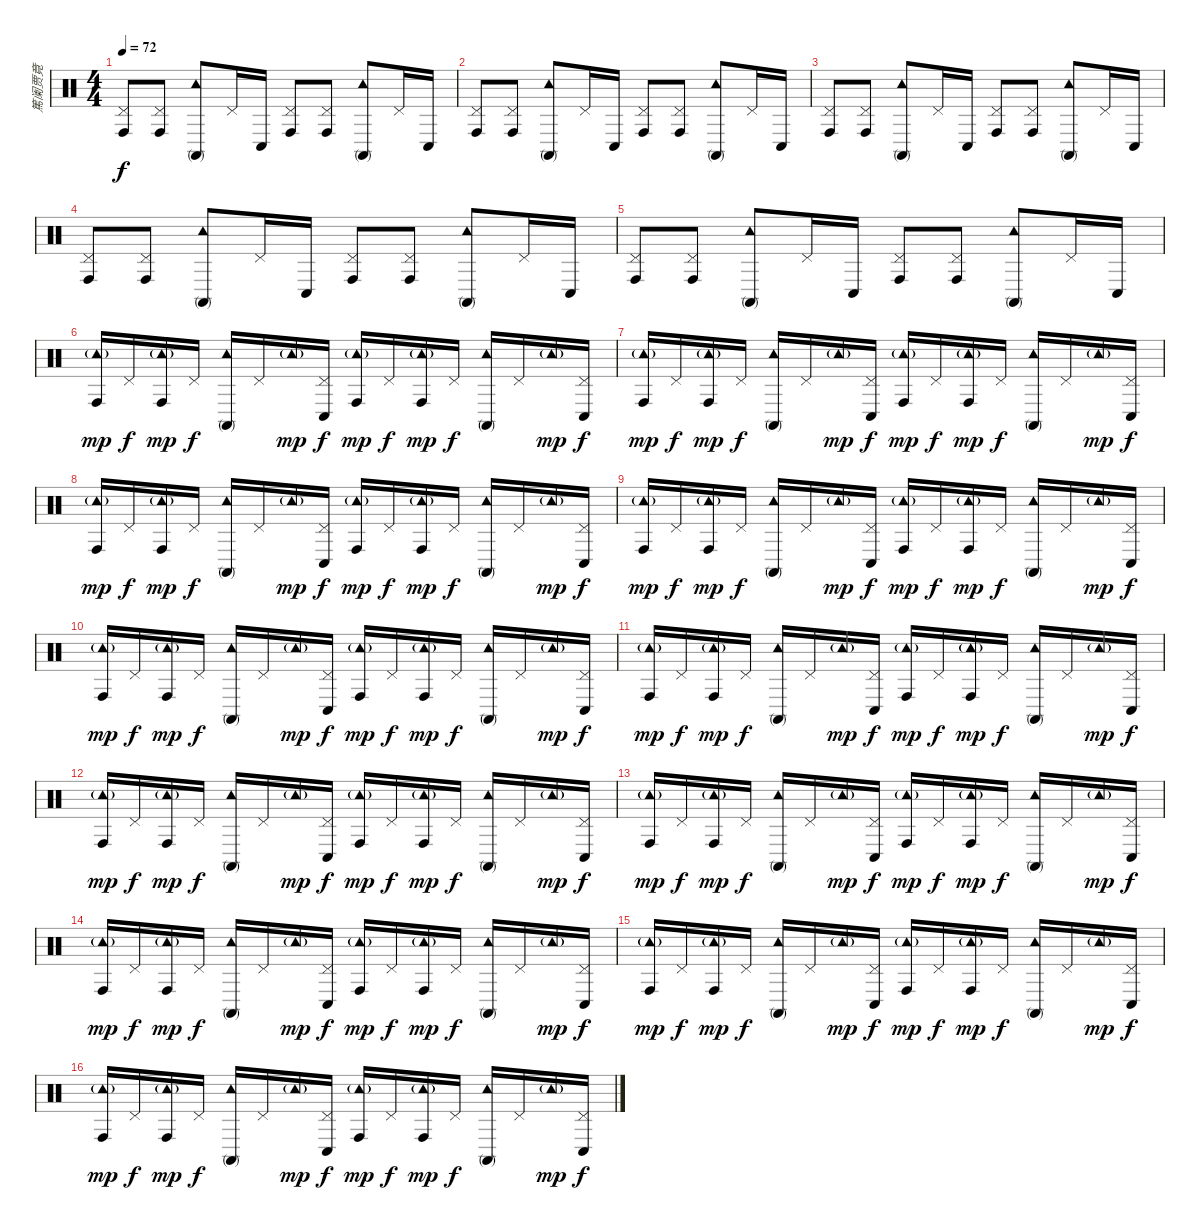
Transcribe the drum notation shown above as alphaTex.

\track ("篤阑贾竟" "篤阑贾竟") {instrument percussion}
\staff {score}
\articulation defaults
\ts (4 4)
\tempo 72
\clef neutral
\ks c
("Pedal Hi-Hat (hit)" "Conga high (hit)").8{dy f} ("Pedal Hi-Hat (hit)" "Conga high (hit)").8 ("Tambourine (hit)" "Conga high (mute)").8 "Pedal Hi-Hat (hit)".16 "Conga low (hit)".16 ("Pedal Hi-Hat (hit)" "Conga high (hit)").8 ("Pedal Hi-Hat (hit)" "Conga high (hit)").8 ("Tambourine (hit)" "Conga high (mute)").8 "Pedal Hi-Hat (hit)".16 "Conga low (hit)".16 |
("Pedal Hi-Hat (hit)" "Conga high (hit)").8 ("Pedal Hi-Hat (hit)" "Conga high (hit)").8 ("Tambourine (hit)" "Conga high (mute)").8 "Pedal Hi-Hat (hit)".16 "Conga low (hit)".16 ("Pedal Hi-Hat (hit)" "Conga high (hit)").8 ("Pedal Hi-Hat (hit)" "Conga high (hit)").8 ("Tambourine (hit)" "Conga high (mute)").8 "Pedal Hi-Hat (hit)".16 "Conga low (hit)".16 |
("Pedal Hi-Hat (hit)" "Conga high (hit)").8 ("Pedal Hi-Hat (hit)" "Conga high (hit)").8 ("Tambourine (hit)" "Conga high (mute)").8 "Pedal Hi-Hat (hit)".16 "Conga low (hit)".16 ("Pedal Hi-Hat (hit)" "Conga high (hit)").8 ("Pedal Hi-Hat (hit)" "Conga high (hit)").8 ("Tambourine (hit)" "Conga high (mute)").8 "Pedal Hi-Hat (hit)".16 "Conga low (hit)".16 |
("Pedal Hi-Hat (hit)" "Conga high (hit)").8 ("Pedal Hi-Hat (hit)" "Conga high (hit)").8 ("Tambourine (hit)" "Conga high (mute)").8 "Pedal Hi-Hat (hit)".16 "Conga low (hit)".16 ("Pedal Hi-Hat (hit)" "Conga high (hit)").8 ("Pedal Hi-Hat (hit)" "Conga high (hit)").8 ("Tambourine (hit)" "Conga high (mute)").8 "Pedal Hi-Hat (hit)".16 "Conga low (hit)".16 |
("Pedal Hi-Hat (hit)" "Conga high (hit)").8 ("Pedal Hi-Hat (hit)" "Conga high (hit)").8 ("Tambourine (hit)" "Conga high (mute)").8 "Pedal Hi-Hat (hit)".16 "Conga low (hit)".16 ("Pedal Hi-Hat (hit)" "Conga high (hit)").8 ("Pedal Hi-Hat (hit)" "Conga high (hit)").8 ("Tambourine (hit)" "Conga high (mute)").8 "Pedal Hi-Hat (hit)".16 "Conga low (hit)".16 |
("Tambourine (hit)"{g} "Conga high (hit)").16{dy mp} "Pedal Hi-Hat (hit)".16{dy f} ("Tambourine (hit)"{g} "Conga high (hit)").16{dy mp} "Pedal Hi-Hat (hit)".16{dy f} ("Tambourine (hit)" "Conga high (mute)").16 "Pedal Hi-Hat (hit)".16 "Tambourine (hit)"{g}.16{dy mp} ("Pedal Hi-Hat (hit)" "Conga low (hit)").16{dy f} ("Tambourine (hit)"{g} "Conga high (hit)").16{dy mp} "Pedal Hi-Hat (hit)".16{dy f} ("Tambourine (hit)"{g} "Conga high (hit)").16{dy mp} "Pedal Hi-Hat (hit)".16{dy f} ("Tambourine (hit)" "Conga high (mute)").16 "Pedal Hi-Hat (hit)".16 "Tambourine (hit)"{g}.16{dy mp} ("Pedal Hi-Hat (hit)" "Conga low (hit)").16{dy f} |
("Tambourine (hit)"{g} "Conga high (hit)").16{dy mp} "Pedal Hi-Hat (hit)".16{dy f} ("Tambourine (hit)"{g} "Conga high (hit)").16{dy mp} "Pedal Hi-Hat (hit)".16{dy f} ("Tambourine (hit)" "Conga high (mute)").16 "Pedal Hi-Hat (hit)".16 "Tambourine (hit)"{g}.16{dy mp} ("Pedal Hi-Hat (hit)" "Conga low (hit)").16{dy f} ("Tambourine (hit)"{g} "Conga high (hit)").16{dy mp} "Pedal Hi-Hat (hit)".16{dy f} ("Tambourine (hit)"{g} "Conga high (hit)").16{dy mp} "Pedal Hi-Hat (hit)".16{dy f} ("Tambourine (hit)" "Conga high (mute)").16 "Pedal Hi-Hat (hit)".16 "Tambourine (hit)"{g}.16{dy mp} ("Pedal Hi-Hat (hit)" "Conga low (hit)").16{dy f} |
("Tambourine (hit)"{g} "Conga high (hit)").16{dy mp} "Pedal Hi-Hat (hit)".16{dy f} ("Tambourine (hit)"{g} "Conga high (hit)").16{dy mp} "Pedal Hi-Hat (hit)".16{dy f} ("Tambourine (hit)" "Conga high (mute)").16 "Pedal Hi-Hat (hit)".16 "Tambourine (hit)"{g}.16{dy mp} ("Pedal Hi-Hat (hit)" "Conga low (hit)").16{dy f} ("Tambourine (hit)"{g} "Conga high (hit)").16{dy mp} "Pedal Hi-Hat (hit)".16{dy f} ("Tambourine (hit)"{g} "Conga high (hit)").16{dy mp} "Pedal Hi-Hat (hit)".16{dy f} ("Tambourine (hit)" "Conga high (mute)").16 "Pedal Hi-Hat (hit)".16 "Tambourine (hit)"{g}.16{dy mp} ("Pedal Hi-Hat (hit)" "Conga low (hit)").16{dy f} |
("Tambourine (hit)"{g} "Conga high (hit)").16{dy mp} "Pedal Hi-Hat (hit)".16{dy f} ("Tambourine (hit)"{g} "Conga high (hit)").16{dy mp} "Pedal Hi-Hat (hit)".16{dy f} ("Tambourine (hit)" "Conga high (mute)").16 "Pedal Hi-Hat (hit)".16 "Tambourine (hit)"{g}.16{dy mp} ("Pedal Hi-Hat (hit)" "Conga low (hit)").16{dy f} ("Tambourine (hit)"{g} "Conga high (hit)").16{dy mp} "Pedal Hi-Hat (hit)".16{dy f} ("Tambourine (hit)"{g} "Conga high (hit)").16{dy mp} "Pedal Hi-Hat (hit)".16{dy f} ("Tambourine (hit)" "Conga high (mute)").16 "Pedal Hi-Hat (hit)".16 "Tambourine (hit)"{g}.16{dy mp} ("Pedal Hi-Hat (hit)" "Conga low (hit)").16{dy f} |
("Tambourine (hit)"{g} "Conga high (hit)").16{dy mp} "Pedal Hi-Hat (hit)".16{dy f} ("Tambourine (hit)"{g} "Conga high (hit)").16{dy mp} "Pedal Hi-Hat (hit)".16{dy f} ("Tambourine (hit)" "Conga high (mute)").16 "Pedal Hi-Hat (hit)".16 "Tambourine (hit)"{g}.16{dy mp} ("Pedal Hi-Hat (hit)" "Conga low (hit)").16{dy f} ("Tambourine (hit)"{g} "Conga high (hit)").16{dy mp} "Pedal Hi-Hat (hit)".16{dy f} ("Tambourine (hit)"{g} "Conga high (hit)").16{dy mp} "Pedal Hi-Hat (hit)".16{dy f} ("Tambourine (hit)" "Conga high (mute)").16 "Pedal Hi-Hat (hit)".16 "Tambourine (hit)"{g}.16{dy mp} ("Pedal Hi-Hat (hit)" "Conga low (hit)").16{dy f} |
("Tambourine (hit)"{g} "Conga high (hit)").16{dy mp} "Pedal Hi-Hat (hit)".16{dy f} ("Tambourine (hit)"{g} "Conga high (hit)").16{dy mp} "Pedal Hi-Hat (hit)".16{dy f} ("Tambourine (hit)" "Conga high (mute)").16 "Pedal Hi-Hat (hit)".16 "Tambourine (hit)"{g}.16{dy mp} ("Pedal Hi-Hat (hit)" "Conga low (hit)").16{dy f} ("Tambourine (hit)"{g} "Conga high (hit)").16{dy mp} "Pedal Hi-Hat (hit)".16{dy f} ("Tambourine (hit)"{g} "Conga high (hit)").16{dy mp} "Pedal Hi-Hat (hit)".16{dy f} ("Tambourine (hit)" "Conga high (mute)").16 "Pedal Hi-Hat (hit)".16 "Tambourine (hit)"{g}.16{dy mp} ("Pedal Hi-Hat (hit)" "Conga low (hit)").16{dy f} |
("Tambourine (hit)"{g} "Conga high (hit)").16{dy mp} "Pedal Hi-Hat (hit)".16{dy f} ("Tambourine (hit)"{g} "Conga high (hit)").16{dy mp} "Pedal Hi-Hat (hit)".16{dy f} ("Tambourine (hit)" "Conga high (mute)").16 "Pedal Hi-Hat (hit)".16 "Tambourine (hit)"{g}.16{dy mp} ("Pedal Hi-Hat (hit)" "Conga low (hit)").16{dy f} ("Tambourine (hit)"{g} "Conga high (hit)").16{dy mp} "Pedal Hi-Hat (hit)".16{dy f} ("Tambourine (hit)"{g} "Conga high (hit)").16{dy mp} "Pedal Hi-Hat (hit)".16{dy f} ("Tambourine (hit)" "Conga high (mute)").16 "Pedal Hi-Hat (hit)".16 "Tambourine (hit)"{g}.16{dy mp} ("Pedal Hi-Hat (hit)" "Conga low (hit)").16{dy f} |
("Tambourine (hit)"{g} "Conga high (hit)").16{dy mp} "Pedal Hi-Hat (hit)".16{dy f} ("Tambourine (hit)"{g} "Conga high (hit)").16{dy mp} "Pedal Hi-Hat (hit)".16{dy f} ("Tambourine (hit)" "Conga high (mute)").16 "Pedal Hi-Hat (hit)".16 "Tambourine (hit)"{g}.16{dy mp} ("Pedal Hi-Hat (hit)" "Conga low (hit)").16{dy f} ("Tambourine (hit)"{g} "Conga high (hit)").16{dy mp} "Pedal Hi-Hat (hit)".16{dy f} ("Tambourine (hit)"{g} "Conga high (hit)").16{dy mp} "Pedal Hi-Hat (hit)".16{dy f} ("Tambourine (hit)" "Conga high (mute)").16 "Pedal Hi-Hat (hit)".16 "Tambourine (hit)"{g}.16{dy mp} ("Pedal Hi-Hat (hit)" "Conga low (hit)").16{dy f} |
("Tambourine (hit)"{g} "Conga high (hit)").16{dy mp} "Pedal Hi-Hat (hit)".16{dy f} ("Tambourine (hit)"{g} "Conga high (hit)").16{dy mp} "Pedal Hi-Hat (hit)".16{dy f} ("Tambourine (hit)" "Conga high (mute)").16 "Pedal Hi-Hat (hit)".16 "Tambourine (hit)"{g}.16{dy mp} ("Pedal Hi-Hat (hit)" "Conga low (hit)").16{dy f} ("Tambourine (hit)"{g} "Conga high (hit)").16{dy mp} "Pedal Hi-Hat (hit)".16{dy f} ("Tambourine (hit)"{g} "Conga high (hit)").16{dy mp} "Pedal Hi-Hat (hit)".16{dy f} ("Tambourine (hit)" "Conga high (mute)").16 "Pedal Hi-Hat (hit)".16 "Tambourine (hit)"{g}.16{dy mp} ("Pedal Hi-Hat (hit)" "Conga low (hit)").16{dy f} |
("Tambourine (hit)"{g} "Conga high (hit)").16{dy mp} "Pedal Hi-Hat (hit)".16{dy f} ("Tambourine (hit)"{g} "Conga high (hit)").16{dy mp} "Pedal Hi-Hat (hit)".16{dy f} ("Tambourine (hit)" "Conga high (mute)").16 "Pedal Hi-Hat (hit)".16 "Tambourine (hit)"{g}.16{dy mp} ("Pedal Hi-Hat (hit)" "Conga low (hit)").16{dy f} ("Tambourine (hit)"{g} "Conga high (hit)").16{dy mp} "Pedal Hi-Hat (hit)".16{dy f} ("Tambourine (hit)"{g} "Conga high (hit)").16{dy mp} "Pedal Hi-Hat (hit)".16{dy f} ("Tambourine (hit)" "Conga high (mute)").16 "Pedal Hi-Hat (hit)".16 "Tambourine (hit)"{g}.16{dy mp} ("Pedal Hi-Hat (hit)" "Conga low (hit)").16{dy f} |
("Tambourine (hit)"{g} "Conga high (hit)").16{dy mp} "Pedal Hi-Hat (hit)".16{dy f} ("Tambourine (hit)"{g} "Conga high (hit)").16{dy mp} "Pedal Hi-Hat (hit)".16{dy f} ("Tambourine (hit)" "Conga high (mute)").16 "Pedal Hi-Hat (hit)".16 "Tambourine (hit)"{g}.16{dy mp} ("Pedal Hi-Hat (hit)" "Conga low (hit)").16{dy f} ("Tambourine (hit)"{g} "Conga high (hit)").16{dy mp} "Pedal Hi-Hat (hit)".16{dy f} ("Tambourine (hit)"{g} "Conga high (hit)").16{dy mp} "Pedal Hi-Hat (hit)".16{dy f} ("Tambourine (hit)" "Conga high (mute)").16 "Pedal Hi-Hat (hit)".16 "Tambourine (hit)"{g}.16{dy mp} ("Pedal Hi-Hat (hit)" "Conga low (hit)").16{dy f}
